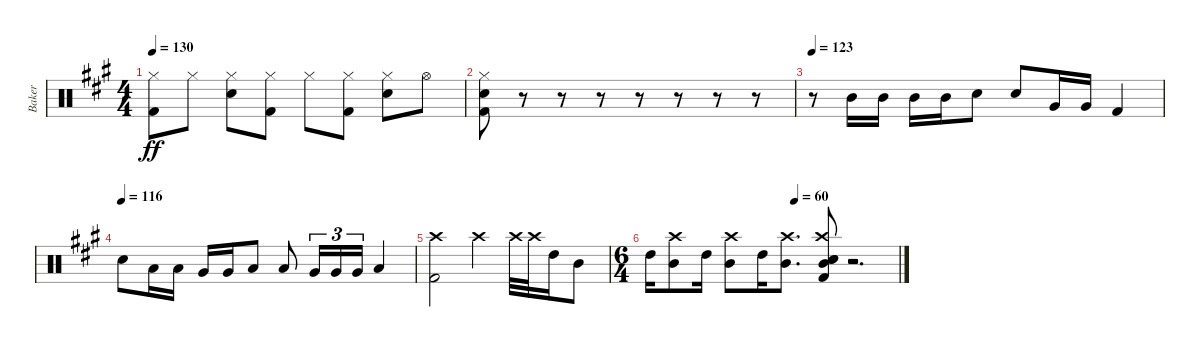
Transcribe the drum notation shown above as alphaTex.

\track ("Baker" "Baker") {instrument percussion}
\staff {score}
\articulation defaults
\ts (4 4)
\tempo 130
\clef neutral
\ks a
("Hi-Hat (closed)" "Kick (hit) 2").8{dy ff} "Hi-Hat (closed)".8 ("Hi-Hat (closed)" "Snare (hit) 2").8 ("Hi-Hat (closed)" "Kick (hit) 2").8 "Hi-Hat (closed)".8 ("Hi-Hat (closed)" "Kick (hit) 2").8 ("Hi-Hat (closed)" "Snare (hit) 2").8 "Hi-Hat (open)".8 |
("Hi-Hat (closed)" "Snare (hit) 2" "Kick (hit) 2").8 r.8 r.8 r.8 r.8 r.8 r.8 r.8 |
\tempo 123
r.8 "Mid Tom (hit)".16 "Mid Tom (hit)".16 "Mid Tom (hit)".16 "Mid Tom (hit)".16 "Snare (hit) 2".8 "Snare (hit) 2".8 "Very Low Tom (hit)".16 "Very Low Tom (hit)".16 "Kick (hit) 2".4 |
\tempo (116)
"Snare (hit) 2".8 "Low Tom (hit)".16 "Low Tom (hit)".16 "Very Low Tom (hit)".16 "Very Low Tom (hit)".16 "Low Floor Tom (hit)".8 "Low Floor Tom (hit)".8 "Very Low Tom (hit)".16{tu (3 2)} "Very Low Tom (hit)".16{tu (3 2)} "Very Low Tom (hit)".16{tu (3 2)} "Low Floor Tom (hit)".4 |
("Crash high (hit)" "Kick (hit) 2").2 "Crash high (hit)".4 "Crash high (hit)".32 "Crash high (hit)".32 "High Tom (hit)".16 "Mid Tom (hit)".8 |
\ts (6 4)
\tempo (60 0.5833333333333334)
"High Tom (hit)".16 ("Mid Tom (hit)" "Crash high (hit)").8 "High Tom (hit)".16 ("Mid Tom (hit)" "Crash high (hit)").8 "High Tom (hit)".16 ("Mid Tom (hit)" "Crash high (hit)").8{d} ("Snare (hit) 2" "Electric Snare (hit)" "Mid Tom (hit)" "Crash high (hit)" "Kick (hit) 2").8 r.2{d}
